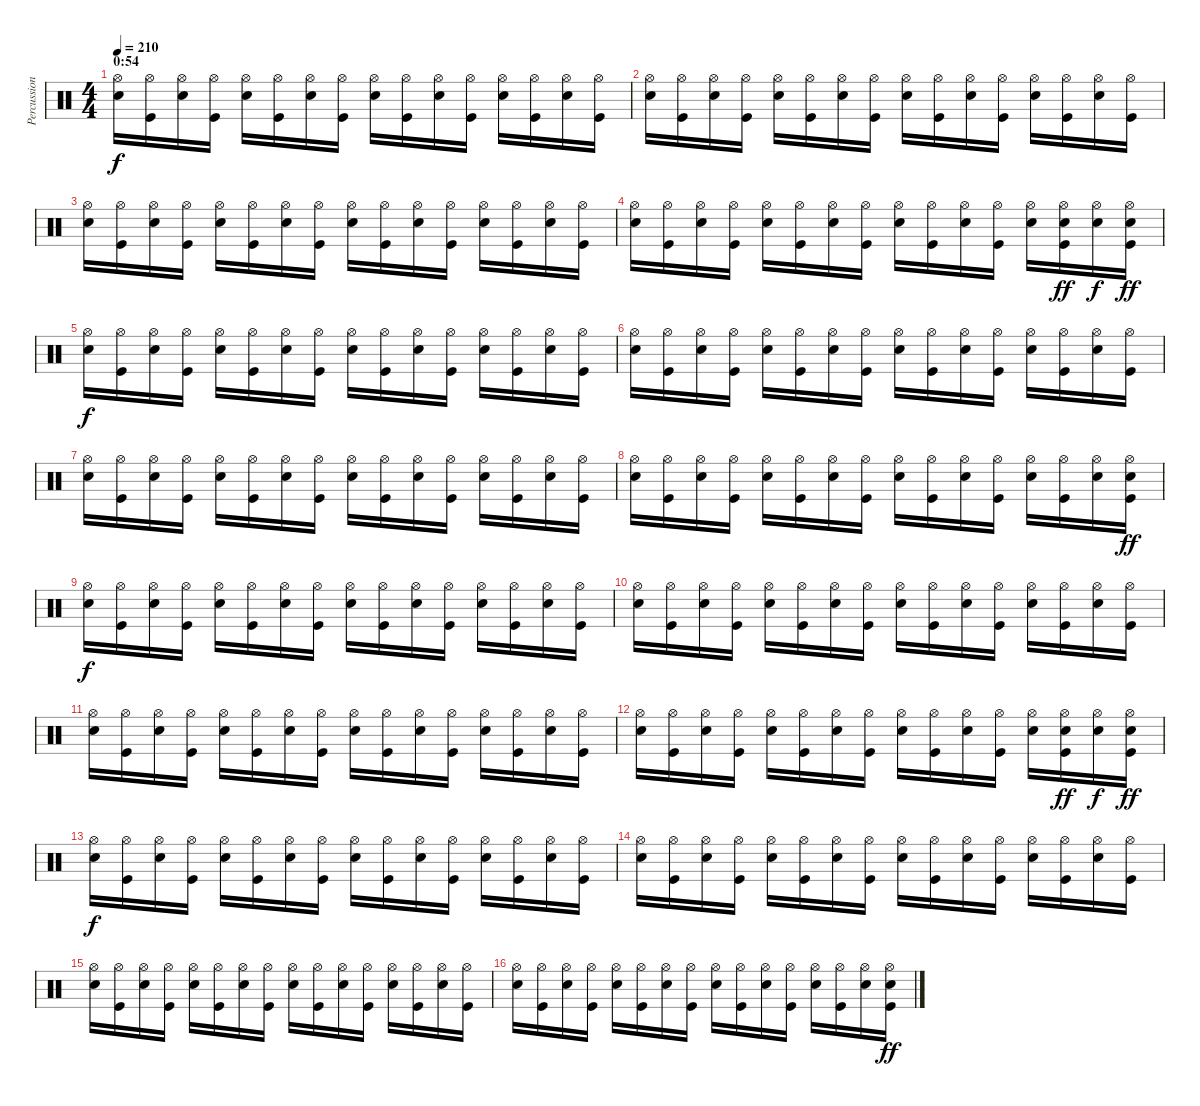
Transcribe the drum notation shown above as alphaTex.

\track ("Percussion" "Percussion") {instrument percussion}
\staff {score}
\articulation defaults
\ts (4 4)
\section ("" "0:54")
\tempo 210
\clef neutral
\ks c
("Hi-Hat (open)" "Snare (hit) 2").16{dy f} ("Hi-Hat (open)" "Kick (hit)").16 ("Hi-Hat (open)" "Snare (hit) 2").16 ("Hi-Hat (open)" "Kick (hit)").16 ("Hi-Hat (open)" "Snare (hit) 2").16 ("Hi-Hat (open)" "Kick (hit)").16 ("Hi-Hat (open)" "Snare (hit) 2").16 ("Hi-Hat (open)" "Kick (hit)").16 ("Hi-Hat (open)" "Snare (hit) 2").16 ("Hi-Hat (open)" "Kick (hit)").16 ("Hi-Hat (open)" "Snare (hit) 2").16 ("Hi-Hat (open)" "Kick (hit)").16 ("Hi-Hat (open)" "Snare (hit) 2").16 ("Hi-Hat (open)" "Kick (hit)").16 ("Hi-Hat (open)" "Snare (hit) 2").16 ("Hi-Hat (open)" "Kick (hit)").16 |
("Hi-Hat (open)" "Snare (hit) 2").16 ("Hi-Hat (open)" "Kick (hit)").16 ("Hi-Hat (open)" "Snare (hit) 2").16 ("Hi-Hat (open)" "Kick (hit)").16 ("Hi-Hat (open)" "Snare (hit) 2").16 ("Hi-Hat (open)" "Kick (hit)").16 ("Hi-Hat (open)" "Snare (hit) 2").16 ("Hi-Hat (open)" "Kick (hit)").16 ("Hi-Hat (open)" "Snare (hit) 2").16 ("Hi-Hat (open)" "Kick (hit)").16 ("Hi-Hat (open)" "Snare (hit) 2").16 ("Hi-Hat (open)" "Kick (hit)").16 ("Hi-Hat (open)" "Snare (hit) 2").16 ("Hi-Hat (open)" "Kick (hit)").16 ("Hi-Hat (open)" "Snare (hit) 2").16 ("Hi-Hat (open)" "Kick (hit)").16 |
("Hi-Hat (open)" "Snare (hit) 2").16 ("Hi-Hat (open)" "Kick (hit)").16 ("Hi-Hat (open)" "Snare (hit) 2").16 ("Hi-Hat (open)" "Kick (hit)").16 ("Hi-Hat (open)" "Snare (hit) 2").16 ("Hi-Hat (open)" "Kick (hit)").16 ("Hi-Hat (open)" "Snare (hit) 2").16 ("Hi-Hat (open)" "Kick (hit)").16 ("Hi-Hat (open)" "Snare (hit) 2").16 ("Hi-Hat (open)" "Kick (hit)").16 ("Hi-Hat (open)" "Snare (hit) 2").16 ("Hi-Hat (open)" "Kick (hit)").16 ("Hi-Hat (open)" "Snare (hit) 2").16 ("Hi-Hat (open)" "Kick (hit)").16 ("Hi-Hat (open)" "Snare (hit) 2").16 ("Hi-Hat (open)" "Kick (hit)").16 |
("Hi-Hat (open)" "Snare (hit) 2").16 ("Hi-Hat (open)" "Kick (hit)").16 ("Hi-Hat (open)" "Snare (hit) 2").16 ("Hi-Hat (open)" "Kick (hit)").16 ("Hi-Hat (open)" "Snare (hit) 2").16 ("Hi-Hat (open)" "Kick (hit)").16 ("Hi-Hat (open)" "Snare (hit) 2").16 ("Hi-Hat (open)" "Kick (hit)").16 ("Hi-Hat (open)" "Snare (hit) 2").16 ("Hi-Hat (open)" "Kick (hit)").16 ("Hi-Hat (open)" "Snare (hit) 2").16 ("Hi-Hat (open)" "Kick (hit)").16 ("Hi-Hat (open)" "Snare (hit) 2").16 ("Snare (hit) 2" "Hi-Hat (open)" "Kick (hit)").16{dy ff} ("Hi-Hat (open)" "Snare (hit) 2").16{dy f} ("Snare (hit) 2" "Hi-Hat (open)" "Kick (hit)").16{dy ff} |
("Hi-Hat (open)" "Snare (hit) 2").16{dy f} ("Hi-Hat (open)" "Kick (hit)").16 ("Hi-Hat (open)" "Snare (hit) 2").16 ("Hi-Hat (open)" "Kick (hit)").16 ("Hi-Hat (open)" "Snare (hit) 2").16 ("Hi-Hat (open)" "Kick (hit)").16 ("Hi-Hat (open)" "Snare (hit) 2").16 ("Hi-Hat (open)" "Kick (hit)").16 ("Hi-Hat (open)" "Snare (hit) 2").16 ("Hi-Hat (open)" "Kick (hit)").16 ("Hi-Hat (open)" "Snare (hit) 2").16 ("Hi-Hat (open)" "Kick (hit)").16 ("Hi-Hat (open)" "Snare (hit) 2").16 ("Hi-Hat (open)" "Kick (hit)").16 ("Hi-Hat (open)" "Snare (hit) 2").16 ("Hi-Hat (open)" "Kick (hit)").16 |
("Hi-Hat (open)" "Snare (hit) 2").16 ("Hi-Hat (open)" "Kick (hit)").16 ("Hi-Hat (open)" "Snare (hit) 2").16 ("Hi-Hat (open)" "Kick (hit)").16 ("Hi-Hat (open)" "Snare (hit) 2").16 ("Hi-Hat (open)" "Kick (hit)").16 ("Hi-Hat (open)" "Snare (hit) 2").16 ("Hi-Hat (open)" "Kick (hit)").16 ("Hi-Hat (open)" "Snare (hit) 2").16 ("Hi-Hat (open)" "Kick (hit)").16 ("Hi-Hat (open)" "Snare (hit) 2").16 ("Hi-Hat (open)" "Kick (hit)").16 ("Hi-Hat (open)" "Snare (hit) 2").16 ("Hi-Hat (open)" "Kick (hit)").16 ("Hi-Hat (open)" "Snare (hit) 2").16 ("Hi-Hat (open)" "Kick (hit)").16 |
("Hi-Hat (open)" "Snare (hit) 2").16 ("Hi-Hat (open)" "Kick (hit)").16 ("Hi-Hat (open)" "Snare (hit) 2").16 ("Hi-Hat (open)" "Kick (hit)").16 ("Hi-Hat (open)" "Snare (hit) 2").16 ("Hi-Hat (open)" "Kick (hit)").16 ("Hi-Hat (open)" "Snare (hit) 2").16 ("Hi-Hat (open)" "Kick (hit)").16 ("Hi-Hat (open)" "Snare (hit) 2").16 ("Hi-Hat (open)" "Kick (hit)").16 ("Hi-Hat (open)" "Snare (hit) 2").16 ("Hi-Hat (open)" "Kick (hit)").16 ("Hi-Hat (open)" "Snare (hit) 2").16 ("Hi-Hat (open)" "Kick (hit)").16 ("Hi-Hat (open)" "Snare (hit) 2").16 ("Hi-Hat (open)" "Kick (hit)").16 |
("Hi-Hat (open)" "Snare (hit) 2").16 ("Hi-Hat (open)" "Kick (hit)").16 ("Hi-Hat (open)" "Snare (hit) 2").16 ("Hi-Hat (open)" "Kick (hit)").16 ("Hi-Hat (open)" "Snare (hit) 2").16 ("Hi-Hat (open)" "Kick (hit)").16 ("Hi-Hat (open)" "Snare (hit) 2").16 ("Hi-Hat (open)" "Kick (hit)").16 ("Hi-Hat (open)" "Snare (hit) 2").16 ("Hi-Hat (open)" "Kick (hit)").16 ("Hi-Hat (open)" "Snare (hit) 2").16 ("Hi-Hat (open)" "Kick (hit)").16 ("Hi-Hat (open)" "Snare (hit) 2").16 ("Hi-Hat (open)" "Kick (hit)").16 ("Hi-Hat (open)" "Snare (hit) 2").16 ("Snare (hit) 2" "Hi-Hat (open)" "Kick (hit)").16{dy ff} |
("Hi-Hat (open)" "Snare (hit) 2").16{dy f} ("Hi-Hat (open)" "Kick (hit)").16 ("Hi-Hat (open)" "Snare (hit) 2").16 ("Hi-Hat (open)" "Kick (hit)").16 ("Hi-Hat (open)" "Snare (hit) 2").16 ("Hi-Hat (open)" "Kick (hit)").16 ("Hi-Hat (open)" "Snare (hit) 2").16 ("Hi-Hat (open)" "Kick (hit)").16 ("Hi-Hat (open)" "Snare (hit) 2").16 ("Hi-Hat (open)" "Kick (hit)").16 ("Hi-Hat (open)" "Snare (hit) 2").16 ("Hi-Hat (open)" "Kick (hit)").16 ("Hi-Hat (open)" "Snare (hit) 2").16 ("Hi-Hat (open)" "Kick (hit)").16 ("Hi-Hat (open)" "Snare (hit) 2").16 ("Hi-Hat (open)" "Kick (hit)").16 |
("Hi-Hat (open)" "Snare (hit) 2").16 ("Hi-Hat (open)" "Kick (hit)").16 ("Hi-Hat (open)" "Snare (hit) 2").16 ("Hi-Hat (open)" "Kick (hit)").16 ("Hi-Hat (open)" "Snare (hit) 2").16 ("Hi-Hat (open)" "Kick (hit)").16 ("Hi-Hat (open)" "Snare (hit) 2").16 ("Hi-Hat (open)" "Kick (hit)").16 ("Hi-Hat (open)" "Snare (hit) 2").16 ("Hi-Hat (open)" "Kick (hit)").16 ("Hi-Hat (open)" "Snare (hit) 2").16 ("Hi-Hat (open)" "Kick (hit)").16 ("Hi-Hat (open)" "Snare (hit) 2").16 ("Hi-Hat (open)" "Kick (hit)").16 ("Hi-Hat (open)" "Snare (hit) 2").16 ("Hi-Hat (open)" "Kick (hit)").16 |
("Hi-Hat (open)" "Snare (hit) 2").16 ("Hi-Hat (open)" "Kick (hit)").16 ("Hi-Hat (open)" "Snare (hit) 2").16 ("Hi-Hat (open)" "Kick (hit)").16 ("Hi-Hat (open)" "Snare (hit) 2").16 ("Hi-Hat (open)" "Kick (hit)").16 ("Hi-Hat (open)" "Snare (hit) 2").16 ("Hi-Hat (open)" "Kick (hit)").16 ("Hi-Hat (open)" "Snare (hit) 2").16 ("Hi-Hat (open)" "Kick (hit)").16 ("Hi-Hat (open)" "Snare (hit) 2").16 ("Hi-Hat (open)" "Kick (hit)").16 ("Hi-Hat (open)" "Snare (hit) 2").16 ("Hi-Hat (open)" "Kick (hit)").16 ("Hi-Hat (open)" "Snare (hit) 2").16 ("Hi-Hat (open)" "Kick (hit)").16 |
("Hi-Hat (open)" "Snare (hit) 2").16 ("Hi-Hat (open)" "Kick (hit)").16 ("Hi-Hat (open)" "Snare (hit) 2").16 ("Hi-Hat (open)" "Kick (hit)").16 ("Hi-Hat (open)" "Snare (hit) 2").16 ("Hi-Hat (open)" "Kick (hit)").16 ("Hi-Hat (open)" "Snare (hit) 2").16 ("Hi-Hat (open)" "Kick (hit)").16 ("Hi-Hat (open)" "Snare (hit) 2").16 ("Hi-Hat (open)" "Kick (hit)").16 ("Hi-Hat (open)" "Snare (hit) 2").16 ("Hi-Hat (open)" "Kick (hit)").16 ("Hi-Hat (open)" "Snare (hit) 2").16 ("Snare (hit) 2" "Hi-Hat (open)" "Kick (hit)").16{dy ff} ("Hi-Hat (open)" "Snare (hit) 2").16{dy f} ("Snare (hit) 2" "Hi-Hat (open)" "Kick (hit)").16{dy ff} |
("Hi-Hat (open)" "Snare (hit) 2").16{dy f} ("Hi-Hat (open)" "Kick (hit)").16 ("Hi-Hat (open)" "Snare (hit) 2").16 ("Hi-Hat (open)" "Kick (hit)").16 ("Hi-Hat (open)" "Snare (hit) 2").16 ("Hi-Hat (open)" "Kick (hit)").16 ("Hi-Hat (open)" "Snare (hit) 2").16 ("Hi-Hat (open)" "Kick (hit)").16 ("Hi-Hat (open)" "Snare (hit) 2").16 ("Hi-Hat (open)" "Kick (hit)").16 ("Hi-Hat (open)" "Snare (hit) 2").16 ("Hi-Hat (open)" "Kick (hit)").16 ("Hi-Hat (open)" "Snare (hit) 2").16 ("Hi-Hat (open)" "Kick (hit)").16 ("Hi-Hat (open)" "Snare (hit) 2").16 ("Hi-Hat (open)" "Kick (hit)").16 |
("Hi-Hat (open)" "Snare (hit) 2").16 ("Hi-Hat (open)" "Kick (hit)").16 ("Hi-Hat (open)" "Snare (hit) 2").16 ("Hi-Hat (open)" "Kick (hit)").16 ("Hi-Hat (open)" "Snare (hit) 2").16 ("Hi-Hat (open)" "Kick (hit)").16 ("Hi-Hat (open)" "Snare (hit) 2").16 ("Hi-Hat (open)" "Kick (hit)").16 ("Hi-Hat (open)" "Snare (hit) 2").16 ("Hi-Hat (open)" "Kick (hit)").16 ("Hi-Hat (open)" "Snare (hit) 2").16 ("Hi-Hat (open)" "Kick (hit)").16 ("Hi-Hat (open)" "Snare (hit) 2").16 ("Hi-Hat (open)" "Kick (hit)").16 ("Hi-Hat (open)" "Snare (hit) 2").16 ("Hi-Hat (open)" "Kick (hit)").16 |
("Hi-Hat (open)" "Snare (hit) 2").16 ("Hi-Hat (open)" "Kick (hit)").16 ("Hi-Hat (open)" "Snare (hit) 2").16 ("Hi-Hat (open)" "Kick (hit)").16 ("Hi-Hat (open)" "Snare (hit) 2").16 ("Hi-Hat (open)" "Kick (hit)").16 ("Hi-Hat (open)" "Snare (hit) 2").16 ("Hi-Hat (open)" "Kick (hit)").16 ("Hi-Hat (open)" "Snare (hit) 2").16 ("Hi-Hat (open)" "Kick (hit)").16 ("Hi-Hat (open)" "Snare (hit) 2").16 ("Hi-Hat (open)" "Kick (hit)").16 ("Hi-Hat (open)" "Snare (hit) 2").16 ("Hi-Hat (open)" "Kick (hit)").16 ("Hi-Hat (open)" "Snare (hit) 2").16 ("Hi-Hat (open)" "Kick (hit)").16 |
("Hi-Hat (open)" "Snare (hit) 2").16 ("Hi-Hat (open)" "Kick (hit)").16 ("Hi-Hat (open)" "Snare (hit) 2").16 ("Hi-Hat (open)" "Kick (hit)").16 ("Hi-Hat (open)" "Snare (hit) 2").16 ("Hi-Hat (open)" "Kick (hit)").16 ("Hi-Hat (open)" "Snare (hit) 2").16 ("Hi-Hat (open)" "Kick (hit)").16 ("Hi-Hat (open)" "Snare (hit) 2").16 ("Hi-Hat (open)" "Kick (hit)").16 ("Hi-Hat (open)" "Snare (hit) 2").16 ("Hi-Hat (open)" "Kick (hit)").16 ("Hi-Hat (open)" "Snare (hit) 2").16 ("Hi-Hat (open)" "Kick (hit)").16 ("Hi-Hat (open)" "Snare (hit) 2").16 ("Snare (hit) 2" "Hi-Hat (open)" "Kick (hit)").16{dy ff}
